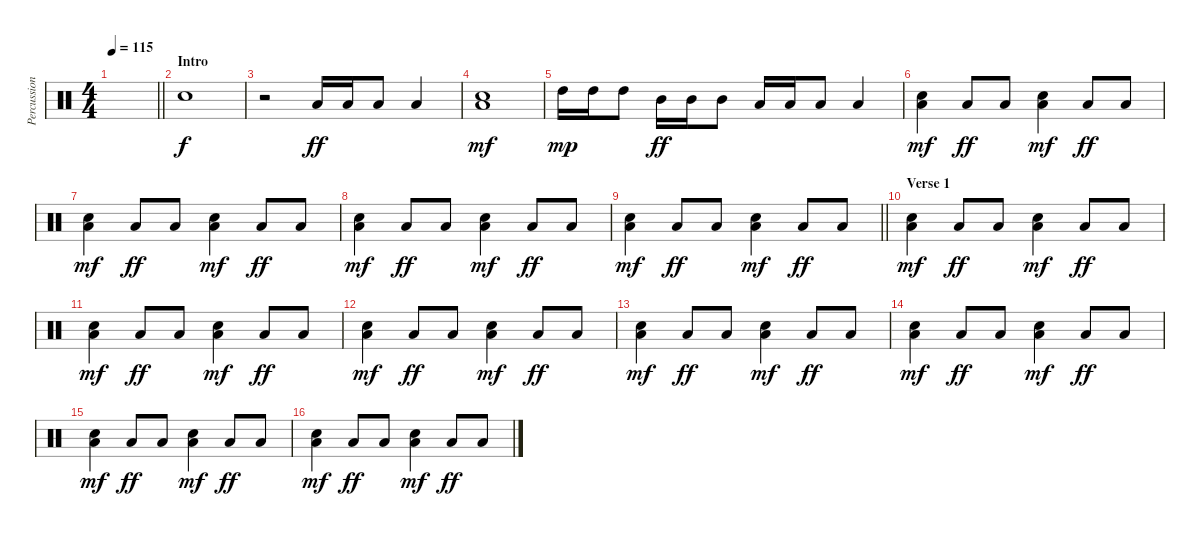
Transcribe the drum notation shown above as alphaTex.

\track ("Percussion" "Percussion") {instrument percussion}
\staff {score}
\articulation defaults
\ts (4 4)
\tempo 115
\clef neutral
\barLineRight lightlight
\ks c
|
\section ("" "Intro")
"Snare (hit) 2".1 |
r.2 "Low Tom (hit)".16{dy ff} "Low Tom (hit)".16 "Low Tom (hit)".8 "Low Floor Tom (hit)".4 |
("Low Floor Tom (hit)" "Snare (hit) 2").1{dy mf} |
"High Tom (hit)".16{dy mp} "High Tom (hit)".16 "High Tom (hit)".8 "Mid Tom (hit)".16{dy ff} "Mid Tom (hit)".16 "Mid Tom (hit)".8 "Low Tom (hit)".16 "Low Tom (hit)".16 "Low Tom (hit)".8 "Low Floor Tom (hit)".4 |
("Low Floor Tom (hit)" "Snare (hit) 2").4{dy mf} "Low Floor Tom (hit)".8{dy ff} "Low Floor Tom (hit)".8 ("Low Floor Tom (hit)" "Snare (hit) 2").4{dy mf} "Low Floor Tom (hit)".8{dy ff} "Low Floor Tom (hit)".8 |
("Low Floor Tom (hit)" "Snare (hit) 2").4{dy mf} "Low Floor Tom (hit)".8{dy ff} "Low Floor Tom (hit)".8 ("Low Floor Tom (hit)" "Snare (hit) 2").4{dy mf} "Low Floor Tom (hit)".8{dy ff} "Low Floor Tom (hit)".8 |
("Low Floor Tom (hit)" "Snare (hit) 2").4{dy mf} "Low Floor Tom (hit)".8{dy ff} "Low Floor Tom (hit)".8 ("Low Floor Tom (hit)" "Snare (hit) 2").4{dy mf} "Low Floor Tom (hit)".8{dy ff} "Low Floor Tom (hit)".8 |
\barLineRight lightlight
("Low Floor Tom (hit)" "Snare (hit) 2").4{dy mf} "Low Floor Tom (hit)".8{dy ff} "Low Floor Tom (hit)".8 ("Low Floor Tom (hit)" "Snare (hit) 2").4{dy mf} "Low Floor Tom (hit)".8{dy ff} "Low Floor Tom (hit)".8 |
\section ("" "Verse 1")
("Low Floor Tom (hit)" "Snare (hit) 2").4{dy mf} "Low Floor Tom (hit)".8{dy ff} "Low Floor Tom (hit)".8 ("Low Floor Tom (hit)" "Snare (hit) 2").4{dy mf} "Low Floor Tom (hit)".8{dy ff} "Low Floor Tom (hit)".8 |
("Low Floor Tom (hit)" "Snare (hit) 2").4{dy mf} "Low Floor Tom (hit)".8{dy ff} "Low Floor Tom (hit)".8 ("Low Floor Tom (hit)" "Snare (hit) 2").4{dy mf} "Low Floor Tom (hit)".8{dy ff} "Low Floor Tom (hit)".8 |
("Low Floor Tom (hit)" "Snare (hit) 2").4{dy mf} "Low Floor Tom (hit)".8{dy ff} "Low Floor Tom (hit)".8 ("Low Floor Tom (hit)" "Snare (hit) 2").4{dy mf} "Low Floor Tom (hit)".8{dy ff} "Low Floor Tom (hit)".8 |
("Low Floor Tom (hit)" "Snare (hit) 2").4{dy mf} "Low Floor Tom (hit)".8{dy ff} "Low Floor Tom (hit)".8 ("Low Floor Tom (hit)" "Snare (hit) 2").4{dy mf} "Low Floor Tom (hit)".8{dy ff} "Low Floor Tom (hit)".8 |
("Low Floor Tom (hit)" "Snare (hit) 2").4{dy mf} "Low Floor Tom (hit)".8{dy ff} "Low Floor Tom (hit)".8 ("Low Floor Tom (hit)" "Snare (hit) 2").4{dy mf} "Low Floor Tom (hit)".8{dy ff} "Low Floor Tom (hit)".8 |
("Low Floor Tom (hit)" "Snare (hit) 2").4{dy mf} "Low Floor Tom (hit)".8{dy ff} "Low Floor Tom (hit)".8 ("Low Floor Tom (hit)" "Snare (hit) 2").4{dy mf} "Low Floor Tom (hit)".8{dy ff} "Low Floor Tom (hit)".8 |
("Low Floor Tom (hit)" "Snare (hit) 2").4{dy mf} "Low Floor Tom (hit)".8{dy ff} "Low Floor Tom (hit)".8 ("Low Floor Tom (hit)" "Snare (hit) 2").4{dy mf} "Low Floor Tom (hit)".8{dy ff} "Low Floor Tom (hit)".8
